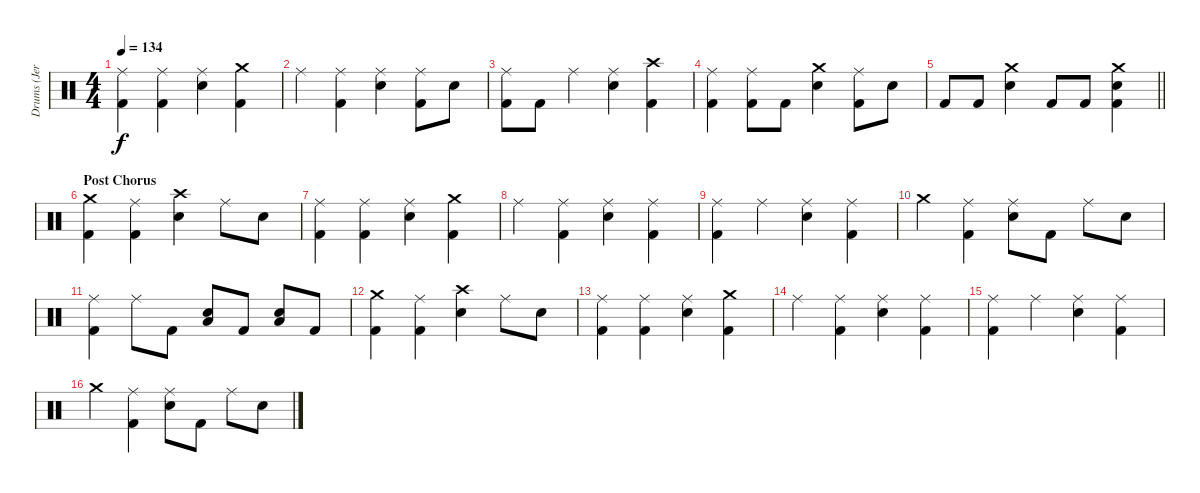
\track ("Drums (Jeremy Taggart)" "Drums (Jer") {instrument percussion}
\staff
\articulation defaults
\ts (4 4)
\tempo 134
\clef neutral
\ks c
("Ride (middle)" "Kick (hit) 2").4{dy f} ("Ride (middle)" "Kick (hit) 2").4 ("Ride (middle)" "Snare (hit) 2").4 ("Crash medium (hit)" "Kick (hit) 2").4 |
"Ride (middle)".4 ("Ride (middle)" "Kick (hit) 2").4 ("Ride (middle)" "Snare (hit) 2").4 ("Ride (middle)" "Kick (hit) 2").8 "Snare (hit) 2".8 |
("Ride (middle)" "Kick (hit) 2").8 "Kick (hit) 2".8 "Ride (middle)".4 ("Ride (middle)" "Snare (hit) 2").4 ("Crash high (hit)" "Kick (hit) 2").4 |
("Ride (middle)" "Kick (hit) 2").4 ("Ride (middle)" "Kick (hit) 2").8 "Kick (hit) 2".8 ("Crash medium (hit)" "Snare (hit) 2").4 ("Ride (middle)" "Kick (hit) 2").8 "Snare (hit) 2".8 |
\barLineRight lightlight "Kick (hit) 2".8 "Kick (hit) 2".8
("Crash medium (hit)" "Snare (hit) 2").4 "Kick (hit) 2".8 "Kick (hit) 2".8 ("Crash medium (hit)" "Snare (hit) 2" "Kick (hit) 2").4 |
\section ("" "Post Chorus")
("Crash medium (hit)" "Kick (hit) 2").4 ("Ride (middle)" "Kick (hit) 2").4 ("Crash high (hit)" "Snare (hit) 2").4 "Ride (middle)".8 "Snare (hit) 2".8 |
("Ride (middle)" "Kick (hit) 2").4 ("Ride (middle)" "Kick (hit) 2").4 ("Ride (middle)" "Snare (hit) 2").4 ("Crash medium (hit)" "Kick (hit) 2").4 |
"Ride (middle)".4 ("Ride (middle)" "Kick (hit) 2").4 ("Ride (middle)" "Snare (hit) 2").4 ("Ride (middle)" "Kick (hit) 2").4 |
("Ride (middle)" "Kick (hit) 2").4 "Ride (middle)".4 ("Ride (middle)" "Snare (hit) 2").4 ("Ride (middle)" "Kick (hit) 2").4 |
"Crash medium (hit)".4 ("Ride (middle)" "Kick (hit) 2").4 ("Ride (middle)" "Snare (hit) 2").8 "Kick (hit) 2".8 "Ride (middle)".8 "Snare (hit) 2".8 |
("Ride (middle)" "Kick (hit) 2").4 "Ride (middle)".8 "Kick (hit) 2".8 ("Low Floor Tom (hit)" "Snare (hit) 2").8 "Kick (hit) 2".8 ("Low Floor Tom (hit)" "Snare (hit) 2").8 "Kick (hit) 2".8 |
("Crash medium (hit)" "Kick (hit) 2").4 ("Ride (middle)" "Kick (hit) 2").4 ("Crash high (hit)" "Snare (hit) 2").4 "Ride (middle)".8 "Snare (hit) 2".8 |
("Ride (middle)" "Kick (hit) 2").4 ("Ride (middle)" "Kick (hit) 2").4 ("Ride (middle)" "Snare (hit) 2").4 ("Crash medium (hit)" "Kick (hit) 2").4 |
"Ride (middle)".4 ("Ride (middle)" "Kick (hit) 2").4 ("Ride (middle)" "Snare (hit) 2").4 ("Ride (middle)" "Kick (hit) 2").4 |
("Ride (middle)" "Kick (hit) 2").4 "Ride (middle)".4 ("Ride (middle)" "Snare (hit) 2").4 ("Ride (middle)" "Kick (hit) 2").4 |
"Crash medium (hit)".4 ("Ride (middle)" "Kick (hit) 2").4 ("Ride (middle)" "Snare (hit) 2").8 "Kick (hit) 2".8 "Ride (middle)".8 "Snare (hit) 2".8
